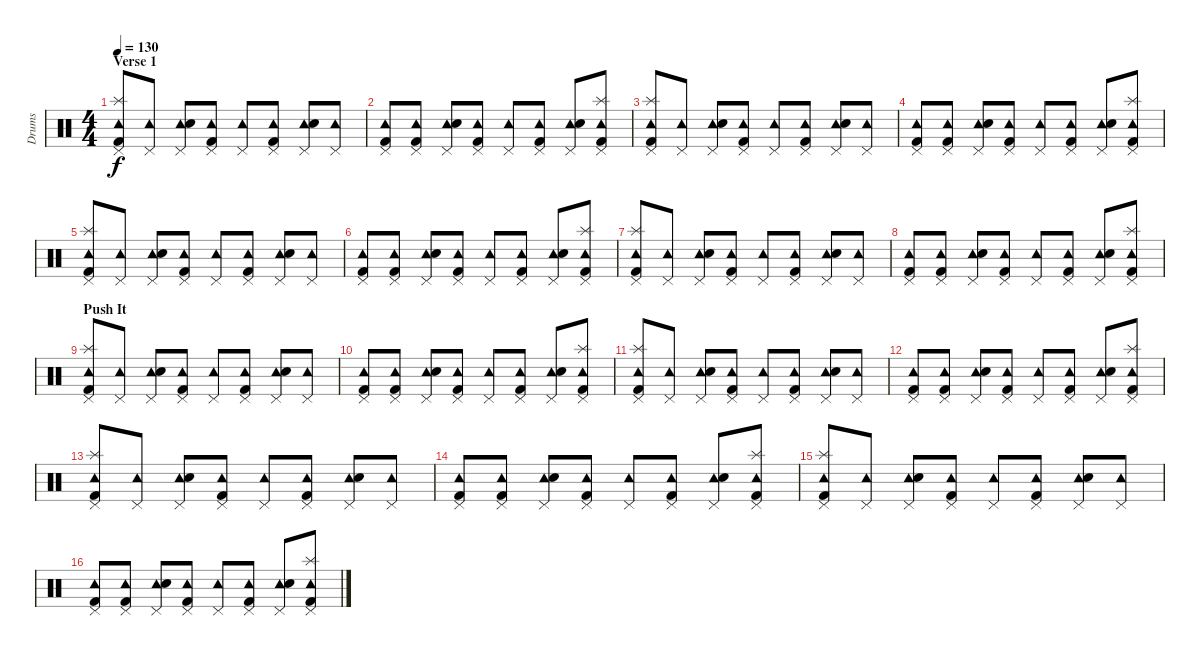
\track ("Drums" "Drums") {instrument percussion}
\staff {score}
\articulation defaults
\ts (4 4)
\section ("" "Verse 1")
\tempo 130
\clef neutral
\ks c
("Tambourine (hit)" "Pedal Hi-Hat (hit)" "Splash (hit)" "Kick (hit) 2").8{dy f} ("Tambourine (hit)" "Pedal Hi-Hat (hit)").8 ("Tambourine (hit)" "Pedal Hi-Hat (hit)" "Electric Snare (hit)").8 ("Tambourine (hit)" "Pedal Hi-Hat (hit)" "Kick (hit) 2").8 ("Tambourine (hit)" "Pedal Hi-Hat (hit)").8 ("Tambourine (hit)" "Pedal Hi-Hat (hit)" "Kick (hit) 2").8 ("Tambourine (hit)" "Pedal Hi-Hat (hit)" "Electric Snare (hit)").8 ("Tambourine (hit)" "Pedal Hi-Hat (hit)").8 |
("Tambourine (hit)" "Pedal Hi-Hat (hit)" "Kick (hit) 2").8 ("Tambourine (hit)" "Pedal Hi-Hat (hit)" "Kick (hit) 2").8 ("Tambourine (hit)" "Pedal Hi-Hat (hit)" "Electric Snare (hit)").8 ("Tambourine (hit)" "Pedal Hi-Hat (hit)" "Kick (hit) 2").8 ("Tambourine (hit)" "Pedal Hi-Hat (hit)").8 ("Tambourine (hit)" "Pedal Hi-Hat (hit)" "Kick (hit) 2").8 ("Tambourine (hit)" "Pedal Hi-Hat (hit)" "Electric Snare (hit)").8 ("Tambourine (hit)" "Pedal Hi-Hat (hit)" "Splash (hit)" "Kick (hit) 2").8 |
("Tambourine (hit)" "Pedal Hi-Hat (hit)" "Splash (hit)" "Kick (hit) 2").8 ("Tambourine (hit)" "Pedal Hi-Hat (hit)").8 ("Tambourine (hit)" "Pedal Hi-Hat (hit)" "Electric Snare (hit)").8 ("Tambourine (hit)" "Pedal Hi-Hat (hit)" "Kick (hit) 2").8 ("Tambourine (hit)" "Pedal Hi-Hat (hit)").8 ("Tambourine (hit)" "Pedal Hi-Hat (hit)" "Kick (hit) 2").8 ("Tambourine (hit)" "Pedal Hi-Hat (hit)" "Electric Snare (hit)").8 ("Tambourine (hit)" "Pedal Hi-Hat (hit)").8 |
("Tambourine (hit)" "Pedal Hi-Hat (hit)" "Kick (hit) 2").8 ("Tambourine (hit)" "Pedal Hi-Hat (hit)" "Kick (hit) 2").8 ("Tambourine (hit)" "Pedal Hi-Hat (hit)" "Electric Snare (hit)").8 ("Tambourine (hit)" "Pedal Hi-Hat (hit)" "Kick (hit) 2").8 ("Tambourine (hit)" "Pedal Hi-Hat (hit)").8 ("Tambourine (hit)" "Pedal Hi-Hat (hit)" "Kick (hit) 2").8 ("Tambourine (hit)" "Pedal Hi-Hat (hit)" "Electric Snare (hit)").8 ("Tambourine (hit)" "Pedal Hi-Hat (hit)" "Splash (hit)" "Kick (hit) 2").8 |
("Tambourine (hit)" "Pedal Hi-Hat (hit)" "Splash (hit)" "Kick (hit) 2").8 ("Tambourine (hit)" "Pedal Hi-Hat (hit)").8 ("Tambourine (hit)" "Pedal Hi-Hat (hit)" "Electric Snare (hit)").8 ("Tambourine (hit)" "Pedal Hi-Hat (hit)" "Kick (hit) 2").8 ("Tambourine (hit)" "Pedal Hi-Hat (hit)").8 ("Tambourine (hit)" "Pedal Hi-Hat (hit)" "Kick (hit) 2").8 ("Tambourine (hit)" "Pedal Hi-Hat (hit)" "Electric Snare (hit)").8 ("Tambourine (hit)" "Pedal Hi-Hat (hit)").8 |
("Tambourine (hit)" "Pedal Hi-Hat (hit)" "Kick (hit) 2").8 ("Tambourine (hit)" "Pedal Hi-Hat (hit)" "Kick (hit) 2").8 ("Tambourine (hit)" "Pedal Hi-Hat (hit)" "Electric Snare (hit)").8 ("Tambourine (hit)" "Pedal Hi-Hat (hit)" "Kick (hit) 2").8 ("Tambourine (hit)" "Pedal Hi-Hat (hit)").8 ("Tambourine (hit)" "Pedal Hi-Hat (hit)" "Kick (hit) 2").8 ("Tambourine (hit)" "Pedal Hi-Hat (hit)" "Electric Snare (hit)").8 ("Tambourine (hit)" "Pedal Hi-Hat (hit)" "Splash (hit)" "Kick (hit) 2").8 |
("Tambourine (hit)" "Pedal Hi-Hat (hit)" "Splash (hit)" "Kick (hit) 2").8 ("Tambourine (hit)" "Pedal Hi-Hat (hit)").8 ("Tambourine (hit)" "Pedal Hi-Hat (hit)" "Electric Snare (hit)").8 ("Tambourine (hit)" "Pedal Hi-Hat (hit)" "Kick (hit) 2").8 ("Tambourine (hit)" "Pedal Hi-Hat (hit)").8 ("Tambourine (hit)" "Pedal Hi-Hat (hit)" "Kick (hit) 2").8 ("Tambourine (hit)" "Pedal Hi-Hat (hit)" "Electric Snare (hit)").8 ("Tambourine (hit)" "Pedal Hi-Hat (hit)").8 |
("Tambourine (hit)" "Pedal Hi-Hat (hit)" "Kick (hit) 2").8 ("Tambourine (hit)" "Pedal Hi-Hat (hit)" "Kick (hit) 2").8 ("Tambourine (hit)" "Pedal Hi-Hat (hit)" "Electric Snare (hit)").8 ("Tambourine (hit)" "Pedal Hi-Hat (hit)" "Kick (hit) 2").8 ("Tambourine (hit)" "Pedal Hi-Hat (hit)").8 ("Tambourine (hit)" "Pedal Hi-Hat (hit)" "Kick (hit) 2").8 ("Tambourine (hit)" "Pedal Hi-Hat (hit)" "Electric Snare (hit)").8 ("Tambourine (hit)" "Pedal Hi-Hat (hit)" "Splash (hit)" "Kick (hit) 2").8 |
\section ("" "Push It")
("Tambourine (hit)" "Pedal Hi-Hat (hit)" "Splash (hit)" "Kick (hit) 2").8 ("Tambourine (hit)" "Pedal Hi-Hat (hit)").8 ("Tambourine (hit)" "Pedal Hi-Hat (hit)" "Electric Snare (hit)").8 ("Tambourine (hit)" "Pedal Hi-Hat (hit)" "Kick (hit) 2").8 ("Tambourine (hit)" "Pedal Hi-Hat (hit)").8 ("Tambourine (hit)" "Pedal Hi-Hat (hit)" "Kick (hit) 2").8 ("Tambourine (hit)" "Pedal Hi-Hat (hit)" "Electric Snare (hit)").8 ("Tambourine (hit)" "Pedal Hi-Hat (hit)").8 |
("Tambourine (hit)" "Pedal Hi-Hat (hit)" "Kick (hit) 2").8 ("Tambourine (hit)" "Pedal Hi-Hat (hit)" "Kick (hit) 2").8 ("Tambourine (hit)" "Pedal Hi-Hat (hit)" "Electric Snare (hit)").8 ("Tambourine (hit)" "Pedal Hi-Hat (hit)" "Kick (hit) 2").8 ("Tambourine (hit)" "Pedal Hi-Hat (hit)").8 ("Tambourine (hit)" "Pedal Hi-Hat (hit)" "Kick (hit) 2").8 ("Tambourine (hit)" "Pedal Hi-Hat (hit)" "Electric Snare (hit)").8 ("Tambourine (hit)" "Pedal Hi-Hat (hit)" "Splash (hit)" "Kick (hit) 2").8 |
("Tambourine (hit)" "Pedal Hi-Hat (hit)" "Splash (hit)" "Kick (hit) 2").8 ("Tambourine (hit)" "Pedal Hi-Hat (hit)").8 ("Tambourine (hit)" "Pedal Hi-Hat (hit)" "Electric Snare (hit)").8 ("Tambourine (hit)" "Pedal Hi-Hat (hit)" "Kick (hit) 2").8 ("Tambourine (hit)" "Pedal Hi-Hat (hit)").8 ("Tambourine (hit)" "Pedal Hi-Hat (hit)" "Kick (hit) 2").8 ("Tambourine (hit)" "Pedal Hi-Hat (hit)" "Electric Snare (hit)").8 ("Tambourine (hit)" "Pedal Hi-Hat (hit)").8 |
("Tambourine (hit)" "Pedal Hi-Hat (hit)" "Kick (hit) 2").8 ("Tambourine (hit)" "Pedal Hi-Hat (hit)" "Kick (hit) 2").8 ("Tambourine (hit)" "Pedal Hi-Hat (hit)" "Electric Snare (hit)").8 ("Tambourine (hit)" "Pedal Hi-Hat (hit)" "Kick (hit) 2").8 ("Tambourine (hit)" "Pedal Hi-Hat (hit)").8 ("Tambourine (hit)" "Pedal Hi-Hat (hit)" "Kick (hit) 2").8 ("Tambourine (hit)" "Pedal Hi-Hat (hit)" "Electric Snare (hit)").8 ("Tambourine (hit)" "Pedal Hi-Hat (hit)" "Splash (hit)" "Kick (hit) 2").8 |
("Tambourine (hit)" "Pedal Hi-Hat (hit)" "Splash (hit)" "Kick (hit) 2").8 ("Tambourine (hit)" "Pedal Hi-Hat (hit)").8 ("Tambourine (hit)" "Pedal Hi-Hat (hit)" "Electric Snare (hit)").8 ("Tambourine (hit)" "Pedal Hi-Hat (hit)" "Kick (hit) 2").8 ("Tambourine (hit)" "Pedal Hi-Hat (hit)").8 ("Tambourine (hit)" "Pedal Hi-Hat (hit)" "Kick (hit) 2").8 ("Tambourine (hit)" "Pedal Hi-Hat (hit)" "Electric Snare (hit)").8 ("Tambourine (hit)" "Pedal Hi-Hat (hit)").8 |
("Tambourine (hit)" "Pedal Hi-Hat (hit)" "Kick (hit) 2").8 ("Tambourine (hit)" "Pedal Hi-Hat (hit)" "Kick (hit) 2").8 ("Tambourine (hit)" "Pedal Hi-Hat (hit)" "Electric Snare (hit)").8 ("Tambourine (hit)" "Pedal Hi-Hat (hit)" "Kick (hit) 2").8 ("Tambourine (hit)" "Pedal Hi-Hat (hit)").8 ("Tambourine (hit)" "Pedal Hi-Hat (hit)" "Kick (hit) 2").8 ("Tambourine (hit)" "Pedal Hi-Hat (hit)" "Electric Snare (hit)").8 ("Tambourine (hit)" "Pedal Hi-Hat (hit)" "Splash (hit)" "Kick (hit) 2").8 |
("Tambourine (hit)" "Pedal Hi-Hat (hit)" "Splash (hit)" "Kick (hit) 2").8 ("Tambourine (hit)" "Pedal Hi-Hat (hit)").8 ("Tambourine (hit)" "Pedal Hi-Hat (hit)" "Electric Snare (hit)").8 ("Tambourine (hit)" "Pedal Hi-Hat (hit)" "Kick (hit) 2").8 ("Tambourine (hit)" "Pedal Hi-Hat (hit)").8 ("Tambourine (hit)" "Pedal Hi-Hat (hit)" "Kick (hit) 2").8 ("Tambourine (hit)" "Pedal Hi-Hat (hit)" "Electric Snare (hit)").8 ("Tambourine (hit)" "Pedal Hi-Hat (hit)").8 |
("Tambourine (hit)" "Pedal Hi-Hat (hit)" "Kick (hit) 2").8 ("Tambourine (hit)" "Pedal Hi-Hat (hit)" "Kick (hit) 2").8 ("Tambourine (hit)" "Pedal Hi-Hat (hit)" "Electric Snare (hit)").8 ("Tambourine (hit)" "Pedal Hi-Hat (hit)" "Kick (hit) 2").8 ("Tambourine (hit)" "Pedal Hi-Hat (hit)").8 ("Tambourine (hit)" "Pedal Hi-Hat (hit)" "Kick (hit) 2").8 ("Tambourine (hit)" "Pedal Hi-Hat (hit)" "Electric Snare (hit)").8 ("Tambourine (hit)" "Pedal Hi-Hat (hit)" "Splash (hit)" "Kick (hit) 2").8
